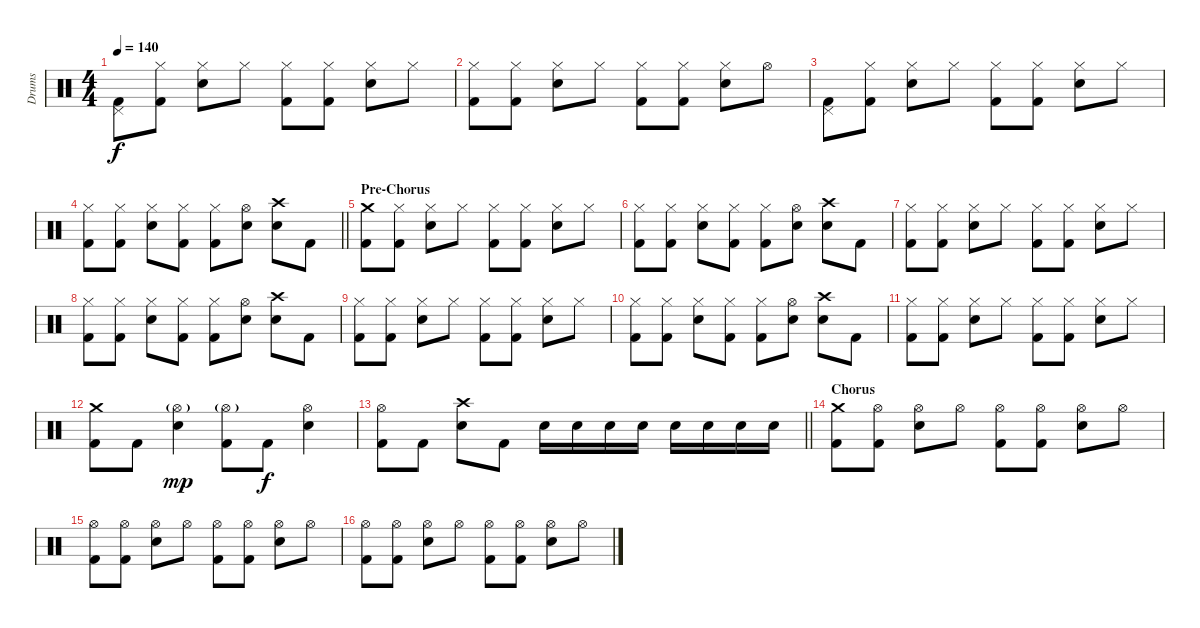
\track ("Drums" "Drums") {instrument percussion}
\staff {score}
\articulation defaults
\ts (4 4)
\tempo 140
\clef neutral
\ks c
("Pedal Hi-Hat (hit)" "Kick (hit) 2").8{dy f} ("Hi-Hat (closed)" "Kick (hit) 2").8 ("Hi-Hat (closed)" "Electric Snare (hit)").8 "Hi-Hat (closed)".8 ("Hi-Hat (closed)" "Kick (hit) 2").8 ("Hi-Hat (closed)" "Kick (hit) 2").8 ("Hi-Hat (closed)" "Electric Snare (hit)").8 "Hi-Hat (closed)".8 |
("Hi-Hat (closed)" "Kick (hit) 2").8 ("Hi-Hat (closed)" "Kick (hit) 2").8 ("Hi-Hat (closed)" "Electric Snare (hit)").8 "Hi-Hat (closed)".8 ("Hi-Hat (closed)" "Kick (hit) 2").8 ("Hi-Hat (closed)" "Kick (hit) 2").8 ("Hi-Hat (closed)" "Electric Snare (hit)").8 "Hi-Hat (open)".8 |
("Pedal Hi-Hat (hit)" "Kick (hit) 2").8 ("Hi-Hat (closed)" "Kick (hit) 2").8 ("Hi-Hat (closed)" "Electric Snare (hit)").8 "Hi-Hat (closed)".8 ("Hi-Hat (closed)" "Kick (hit) 2").8 ("Hi-Hat (closed)" "Kick (hit) 2").8 ("Hi-Hat (closed)" "Electric Snare (hit)").8 "Hi-Hat (closed)".8 |
\barLineRight lightlight
("Hi-Hat (closed)" "Kick (hit) 2").8 ("Hi-Hat (closed)" "Kick (hit) 2").8 ("Hi-Hat (closed)" "Electric Snare (hit)").8 ("Hi-Hat (closed)" "Kick (hit) 2").8 ("Hi-Hat (closed)" "Kick (hit) 2").8 ("Hi-Hat (open)" "Electric Snare (hit)").8 ("Crash high (hit)" "Electric Snare (hit)").8 "Kick (hit) 2".8 |
\section ("" "Pre-Chorus")
("Crash medium (hit)" "Kick (hit) 2").8 ("Hi-Hat (closed)" "Kick (hit) 2").8 ("Hi-Hat (closed)" "Electric Snare (hit)").8 "Hi-Hat (closed)".8 ("Hi-Hat (closed)" "Kick (hit) 2").8 ("Hi-Hat (closed)" "Kick (hit) 2").8 ("Hi-Hat (closed)" "Electric Snare (hit)").8 "Hi-Hat (closed)".8 |
("Hi-Hat (closed)" "Kick (hit) 2").8 ("Hi-Hat (closed)" "Kick (hit) 2").8 ("Hi-Hat (closed)" "Electric Snare (hit)").8 ("Hi-Hat (closed)" "Kick (hit) 2").8 ("Hi-Hat (closed)" "Kick (hit) 2").8 ("Hi-Hat (open)" "Electric Snare (hit)").8 ("Crash high (hit)" "Electric Snare (hit)").8 "Kick (hit) 2".8 |
("Hi-Hat (closed)" "Kick (hit) 2").8 ("Hi-Hat (closed)" "Kick (hit) 2").8 ("Hi-Hat (closed)" "Electric Snare (hit)").8 "Hi-Hat (closed)".8 ("Hi-Hat (closed)" "Kick (hit) 2").8 ("Hi-Hat (closed)" "Kick (hit) 2").8 ("Hi-Hat (closed)" "Electric Snare (hit)").8 "Hi-Hat (closed)".8 |
("Hi-Hat (closed)" "Kick (hit) 2").8 ("Hi-Hat (closed)" "Kick (hit) 2").8 ("Hi-Hat (closed)" "Electric Snare (hit)").8 ("Hi-Hat (closed)" "Kick (hit) 2").8 ("Hi-Hat (closed)" "Kick (hit) 2").8 ("Hi-Hat (open)" "Electric Snare (hit)").8 ("Crash high (hit)" "Electric Snare (hit)").8 "Kick (hit) 2".8 |
("Hi-Hat (closed)" "Kick (hit) 2").8 ("Hi-Hat (closed)" "Kick (hit) 2").8 ("Hi-Hat (closed)" "Electric Snare (hit)").8 "Hi-Hat (closed)".8 ("Hi-Hat (closed)" "Kick (hit) 2").8 ("Hi-Hat (closed)" "Kick (hit) 2").8 ("Hi-Hat (closed)" "Electric Snare (hit)").8 "Hi-Hat (closed)".8 |
("Hi-Hat (closed)" "Kick (hit) 2").8 ("Hi-Hat (closed)" "Kick (hit) 2").8 ("Hi-Hat (closed)" "Electric Snare (hit)").8 ("Hi-Hat (closed)" "Kick (hit) 2").8 ("Hi-Hat (closed)" "Kick (hit) 2").8 ("Hi-Hat (open)" "Electric Snare (hit)").8 ("Crash high (hit)" "Electric Snare (hit)").8 "Kick (hit) 2".8 |
("Hi-Hat (closed)" "Kick (hit) 2").8 ("Hi-Hat (closed)" "Kick (hit) 2").8 ("Hi-Hat (closed)" "Electric Snare (hit)").8 "Hi-Hat (closed)".8 ("Hi-Hat (closed)" "Kick (hit) 2").8 ("Hi-Hat (closed)" "Kick (hit) 2").8 ("Hi-Hat (closed)" "Electric Snare (hit)").8 "Hi-Hat (closed)".8 |
("Crash medium (hit)" "Kick (hit) 2").8 "Kick (hit) 2".8 ("Hi-Hat (open)"{g} "Electric Snare (hit)").4{dy mp} ("Hi-Hat (open)"{g} "Kick (hit) 2").8 "Kick (hit) 2".8{dy f} ("Hi-Hat (open)" "Electric Snare (hit)").4 |
\barLineRight lightlight
("Hi-Hat (open)" "Kick (hit) 2").8 "Kick (hit) 2".8 ("Crash high (hit)" "Electric Snare (hit)").8 "Kick (hit) 2".8 "Electric Snare (hit)".16 "Electric Snare (hit)".16 "Electric Snare (hit)".16 "Electric Snare (hit)".16 "Electric Snare (hit)".16 "Electric Snare (hit)".16 "Electric Snare (hit)".16 "Electric Snare (hit)".16 |
\section ("" "Chorus")
("Crash medium (hit)" "Kick (hit) 2").8 ("Hi-Hat (open)" "Kick (hit) 2").8 ("Hi-Hat (open)" "Electric Snare (hit)").8 "Hi-Hat (open)".8 ("Hi-Hat (open)" "Kick (hit) 2").8 ("Hi-Hat (open)" "Kick (hit) 2").8 ("Hi-Hat (open)" "Electric Snare (hit)").8 "Hi-Hat (open)".8 |
("Hi-Hat (open)" "Kick (hit) 2").8 ("Hi-Hat (open)" "Kick (hit) 2").8 ("Hi-Hat (open)" "Electric Snare (hit)").8 "Hi-Hat (open)".8 ("Hi-Hat (open)" "Kick (hit) 2").8 ("Hi-Hat (open)" "Kick (hit) 2").8 ("Hi-Hat (open)" "Electric Snare (hit)").8 "Hi-Hat (open)".8 |
("Hi-Hat (open)" "Kick (hit) 2").8 ("Hi-Hat (open)" "Kick (hit) 2").8 ("Hi-Hat (open)" "Electric Snare (hit)").8 "Hi-Hat (open)".8 ("Hi-Hat (open)" "Kick (hit) 2").8 ("Hi-Hat (open)" "Kick (hit) 2").8 ("Hi-Hat (open)" "Electric Snare (hit)").8 "Hi-Hat (open)".8
